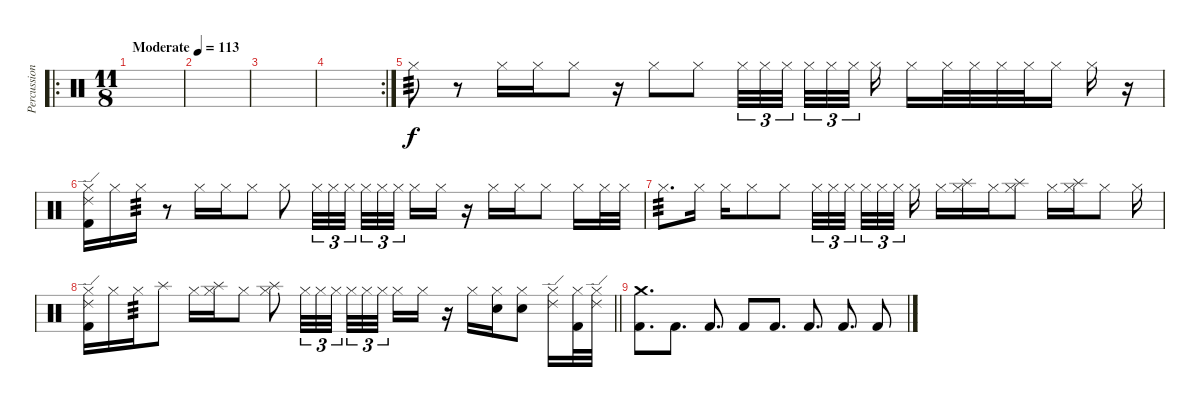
\track ("Percussion" "Percussion") {instrument percussion}
\staff {score}
\articulation defaults
\ro
\ts (11 8)
\tempo (113 "Moderate")
\clef neutral
\ks c
|
|
|
\rc 2
|
"Hi-Hat (closed)".8{tp 3} r.8 "Hi-Hat (closed)".16 "Hi-Hat (closed)".16 "Hi-Hat (closed)".8 r.16 "Hi-Hat (closed)".8 "Hi-Hat (closed)".8 "Hi-Hat (closed)".32{tu (3 2)} "Hi-Hat (closed)".32{tu (3 2)} "Hi-Hat (closed)".32{tu (3 2)} "Hi-Hat (closed)".32{tu (3 2)} "Hi-Hat (closed)".32{tu (3 2)} "Hi-Hat (closed)".32{tu (3 2) beam splitsecondary} "Hi-Hat (closed)".16 "Hi-Hat (closed)".16 "Hi-Hat (closed)".32 "Hi-Hat (closed)".32 "Hi-Hat (closed)".32 "Hi-Hat (closed)".32 "Hi-Hat (closed)".16 "Hi-Hat (closed)".16 r.16 |
("Ride (edge) 2" "Hi-Hat (closed)" "Kick (hit) 2").16 "Hi-Hat (closed)".16 "Hi-Hat (closed)".16{tp 3} r.8 "Hi-Hat (closed)".16 "Hi-Hat (closed)".16 "Hi-Hat (closed)".8 "Hi-Hat (closed)".8 "Hi-Hat (closed)".32{tu (3 2)} "Hi-Hat (closed)".32{tu (3 2)} "Hi-Hat (closed)".32{tu (3 2)} "Hi-Hat (closed)".32{tu (3 2)} "Hi-Hat (closed)".32{tu (3 2)} "Hi-Hat (closed)".32{tu (3 2) beam splitsecondary} "Hi-Hat (closed)".16 "Hi-Hat (closed)".16 r.16 "Hi-Hat (closed)".16 "Hi-Hat (closed)".16 "Hi-Hat (closed)".8 "Hi-Hat (closed)".16 "Hi-Hat (closed)".32 "Hi-Hat (closed)".32 |
"Hi-Hat (closed)".8{d tp 3} "Hi-Hat (closed)".16 "Hi-Hat (closed)".16 "Hi-Hat (closed)".8 "Hi-Hat (closed)".8 "Hi-Hat (closed)".32{tu (3 2)} "Hi-Hat (closed)".32{tu (3 2)} "Hi-Hat (closed)".32{tu (3 2)} "Hi-Hat (closed)".32{tu (3 2)} "Hi-Hat (closed)".32{tu (3 2)} "Hi-Hat (closed)".32{tu (3 2) beam splitsecondary} "Hi-Hat (closed)".16 "Hi-Hat (closed)".16 ("Splash (hit)" "Hi-Hat (closed)").16 "Hi-Hat (closed)".16 ("Splash (hit)" "Hi-Hat (closed)").8 "Hi-Hat (closed)".16 ("Splash (hit)" "Hi-Hat (closed)").16 "Hi-Hat (closed)".8 "Hi-Hat (closed)".16 |
\barLineRight lightlight
("Ride (edge) 2" "Hi-Hat (closed)" "Kick (hit) 2").16 "Hi-Hat (closed)".16 "Hi-Hat (closed)".16{tp 3} "Splash (hit)".8 "Hi-Hat (closed)".16 ("Splash (hit)" "Hi-Hat (closed)").16 "Hi-Hat (closed)".8 ("Splash (hit)" "Hi-Hat (closed)").8 "Hi-Hat (closed)".32{tu (3 2)} "Hi-Hat (closed)".32{tu (3 2)} "Hi-Hat (closed)".32{tu (3 2)} "Hi-Hat (closed)".32{tu (3 2)} "Hi-Hat (closed)".32{tu (3 2)} "Hi-Hat (closed)".32{tu (3 2) beam splitsecondary} "Hi-Hat (closed)".16 "Hi-Hat (closed)".16 r.16 "Hi-Hat (closed)".16 ("Electric Snare (hit)" "Hi-Hat (closed)").16 ("Electric Snare (hit)" "Hi-Hat (closed)").8 ("Ride (edge) 2" "Hi-Hat (closed)").16 ("Kick (hit) 2" "Hi-Hat (closed)").32 ("Ride (edge) 2" "Hi-Hat (closed)").32 |
\section ("" "")
("Crash medium (hit)" "Kick (hit) 2").8{d} "Kick (hit) 2".8{d} "Kick (hit) 2".8{d} "Kick (hit) 2".8 "Kick (hit) 2".8{d} "Kick (hit) 2".8{d} "Kick (hit) 2".8{d} "Kick (hit) 2".8
